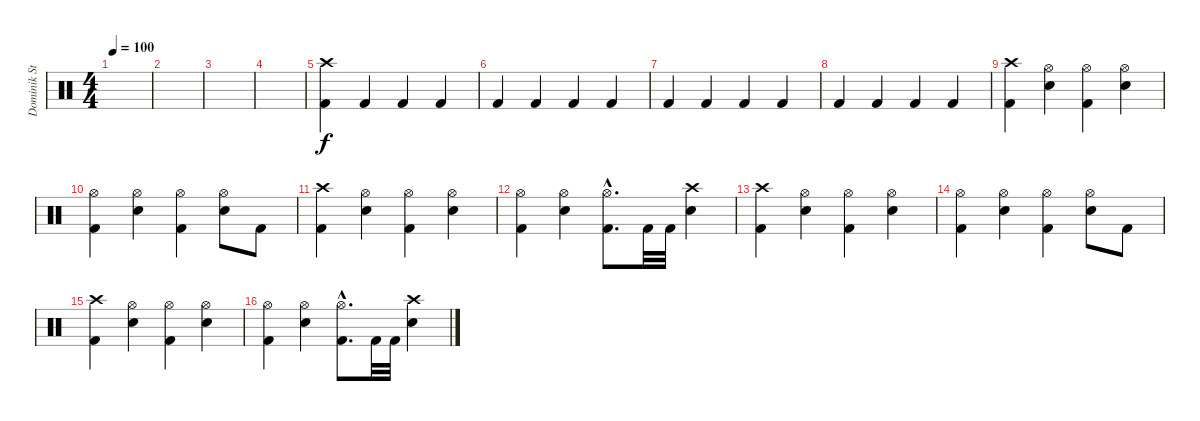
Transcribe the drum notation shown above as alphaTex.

\track ("Dominik Storch" "Dominik St") {instrument percussion}
\staff {score}
\articulation defaults
\ts (4 4)
\tempo 100
\clef neutral
\ks c
|
|
|
|
("Crash high (hit)" "Kick (hit) 2").4 "Kick (hit) 2".4 "Kick (hit) 2".4 "Kick (hit) 2".4 |
"Kick (hit) 2".4 "Kick (hit) 2".4 "Kick (hit) 2".4 "Kick (hit) 2".4 |
"Kick (hit) 2".4 "Kick (hit) 2".4 "Kick (hit) 2".4 "Kick (hit) 2".4 |
"Kick (hit) 2".4 "Kick (hit) 2".4 "Kick (hit) 2".4 "Kick (hit) 2".4 |
("Crash high (hit)" "Kick (hit) 2").4 ("Hi-Hat (open)" "Snare (hit) 2").4 ("Hi-Hat (open)" "Kick (hit) 2").4 ("Hi-Hat (open)" "Snare (hit) 2").4 |
("Hi-Hat (open)" "Kick (hit) 2").4 ("Hi-Hat (open)" "Snare (hit) 2").4 ("Hi-Hat (open)" "Kick (hit) 2").4 ("Hi-Hat (open)" "Snare (hit) 2").8 "Kick (hit) 2".8 |
("Crash high (hit)" "Kick (hit) 2").4 ("Hi-Hat (open)" "Snare (hit) 2").4 ("Hi-Hat (open)" "Kick (hit) 2").4 ("Hi-Hat (open)" "Snare (hit) 2").4 |
("Hi-Hat (open)" "Kick (hit) 2").4 ("Hi-Hat (open)" "Snare (hit) 2").4 ("Hi-Hat (open)"{hac} "Kick (hit) 2"{hac}).8{d} "Kick (hit) 2".32 "Kick (hit) 2".32 ("Crash high (hit)" "Snare (hit) 2").4 |
("Crash high (hit)" "Kick (hit) 2").4 ("Hi-Hat (open)" "Snare (hit) 2").4 ("Hi-Hat (open)" "Kick (hit) 2").4 ("Hi-Hat (open)" "Snare (hit) 2").4 |
("Hi-Hat (open)" "Kick (hit) 2").4 ("Hi-Hat (open)" "Snare (hit) 2").4 ("Hi-Hat (open)" "Kick (hit) 2").4 ("Hi-Hat (open)" "Snare (hit) 2").8 "Kick (hit) 2".8 |
("Crash high (hit)" "Kick (hit) 2").4 ("Hi-Hat (open)" "Snare (hit) 2").4 ("Hi-Hat (open)" "Kick (hit) 2").4 ("Hi-Hat (open)" "Snare (hit) 2").4 |
("Hi-Hat (open)" "Kick (hit) 2").4 ("Hi-Hat (open)" "Snare (hit) 2").4 ("Hi-Hat (open)"{hac} "Kick (hit) 2"{hac}).8{d} "Kick (hit) 2".32 "Kick (hit) 2".32 ("Crash high (hit)" "Snare (hit) 2").4
